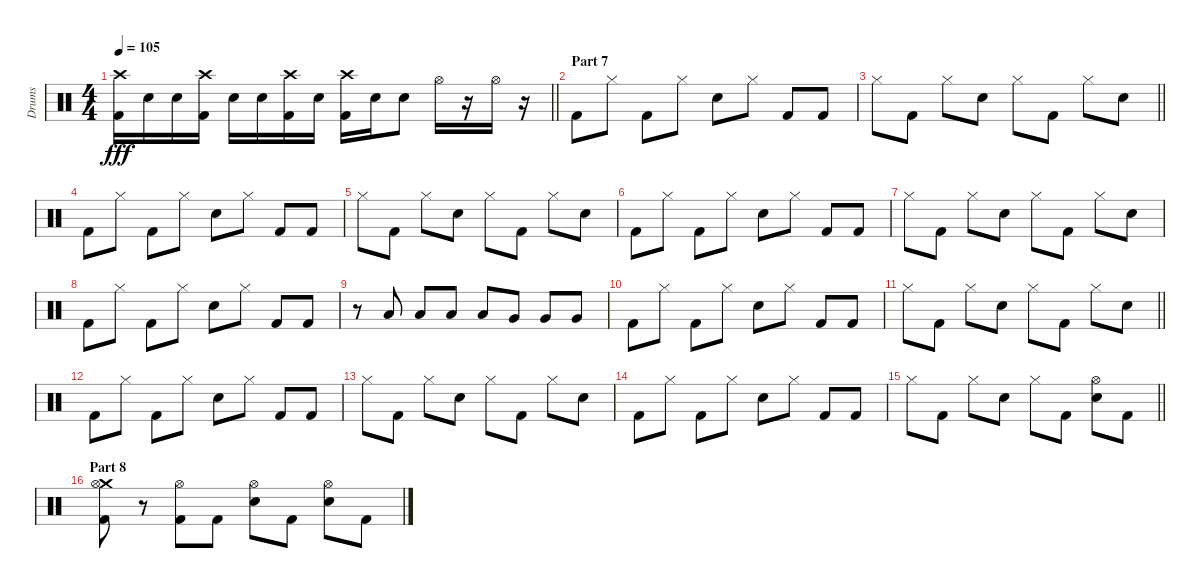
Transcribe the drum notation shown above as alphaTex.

\track ("Drums" "Drums") {instrument percussion}
\staff {score}
\articulation defaults
\ts (4 4)
\tempo 105
\clef neutral
\barLineRight lightlight
\ks c
("Crash high (hit)" "Kick (hit) 2").16{dy fff} "Electric Snare (hit)".16 "Electric Snare (hit)".16 ("Crash high (hit)" "Kick (hit) 2").16 "Electric Snare (hit)".16 "Electric Snare (hit)".16 ("Crash high (hit)" "Kick (hit) 2").16 "Electric Snare (hit)".16 ("Crash high (hit)" "Kick (hit) 2").16 "Electric Snare (hit)".16 "Electric Snare (hit)".8 "Hi-Hat (open)".16 r.16 "Hi-Hat (open)".16 r.16 |
\section ("" "Part 7")
"Kick (hit) 2".8 "Hi-Hat (closed)".8 "Kick (hit) 2".8 "Hi-Hat (closed)".8 "Electric Snare (hit)".8 "Hi-Hat (closed)".8 "Kick (hit) 2".8 "Kick (hit) 2".8 |
\barLineRight lightlight "Hi-Hat (closed)".8 "Kick (hit) 2".8 "Hi-Hat (closed)".8 "Electric Snare (hit)".8 "Hi-Hat (closed)".8 "Kick (hit) 2".8 "Hi-Hat (closed)".8 "Electric Snare (hit)".8
|
"Kick (hit) 2".8 "Hi-Hat (closed)".8 "Kick (hit) 2".8 "Hi-Hat (closed)".8 "Electric Snare (hit)".8 "Hi-Hat (closed)".8 "Kick (hit) 2".8 "Kick (hit) 2".8 |
"Hi-Hat (closed)".8 "Kick (hit) 2".8 "Hi-Hat (closed)".8 "Electric Snare (hit)".8 "Hi-Hat (closed)".8 "Kick (hit) 2".8 "Hi-Hat (closed)".8 "Electric Snare (hit)".8 |
"Kick (hit) 2".8 "Hi-Hat (closed)".8 "Kick (hit) 2".8 "Hi-Hat (closed)".8 "Electric Snare (hit)".8 "Hi-Hat (closed)".8 "Kick (hit) 2".8 "Kick (hit) 2".8 |
"Hi-Hat (closed)".8 "Kick (hit) 2".8 "Hi-Hat (closed)".8 "Electric Snare (hit)".8 "Hi-Hat (closed)".8 "Kick (hit) 2".8 "Hi-Hat (closed)".8 "Electric Snare (hit)".8 |
"Kick (hit) 2".8 "Hi-Hat (closed)".8 "Kick (hit) 2".8 "Hi-Hat (closed)".8 "Electric Snare (hit)".8 "Hi-Hat (closed)".8 "Kick (hit) 2".8 "Kick (hit) 2".8 |
r.8 "Low Tom (hit)".8 "Low Tom (hit)".8 "Low Tom (hit)".8 "Low Tom (hit)".8 "Very Low Tom (hit)".8 "Very Low Tom (hit)".8 "Very Low Tom (hit)".8 |
"Kick (hit) 2".8 "Hi-Hat (closed)".8 "Kick (hit) 2".8 "Hi-Hat (closed)".8 "Electric Snare (hit)".8 "Hi-Hat (closed)".8 "Kick (hit) 2".8 "Kick (hit) 2".8 |
\barLineRight lightlight "Hi-Hat (closed)".8 "Kick (hit) 2".8 "Hi-Hat (closed)".8 "Electric Snare (hit)".8 "Hi-Hat (closed)".8 "Kick (hit) 2".8 "Hi-Hat (closed)".8 "Electric Snare (hit)".8
|
"Kick (hit) 2".8 "Hi-Hat (closed)".8 "Kick (hit) 2".8 "Hi-Hat (closed)".8 "Electric Snare (hit)".8 "Hi-Hat (closed)".8 "Kick (hit) 2".8 "Kick (hit) 2".8 |
"Hi-Hat (closed)".8 "Kick (hit) 2".8 "Hi-Hat (closed)".8 "Electric Snare (hit)".8 "Hi-Hat (closed)".8 "Kick (hit) 2".8 "Hi-Hat (closed)".8 "Electric Snare (hit)".8 |
"Kick (hit) 2".8 "Hi-Hat (closed)".8 "Kick (hit) 2".8 "Hi-Hat (closed)".8 "Electric Snare (hit)".8 "Hi-Hat (closed)".8 "Kick (hit) 2".8 "Kick (hit) 2".8 |
\barLineRight lightlight "Hi-Hat (closed)".8 "Kick (hit) 2".8 "Hi-Hat (closed)".8 "Electric Snare (hit)".8 "Hi-Hat (closed)".8 "Kick (hit) 2".8
("Hi-Hat (open)" "Electric Snare (hit)").8 "Kick (hit) 2".8 |
\section ("" "Part 8")
("Crash medium (hit)" "Hi-Hat (open)" "Kick (hit) 2").8 r.8 ("Hi-Hat (open)" "Kick (hit) 2").8 "Kick (hit) 2".8 ("Hi-Hat (open)" "Electric Snare (hit)").8 "Kick (hit) 2".8 ("Hi-Hat (open)" "Electric Snare (hit)").8 "Kick (hit) 2".8
